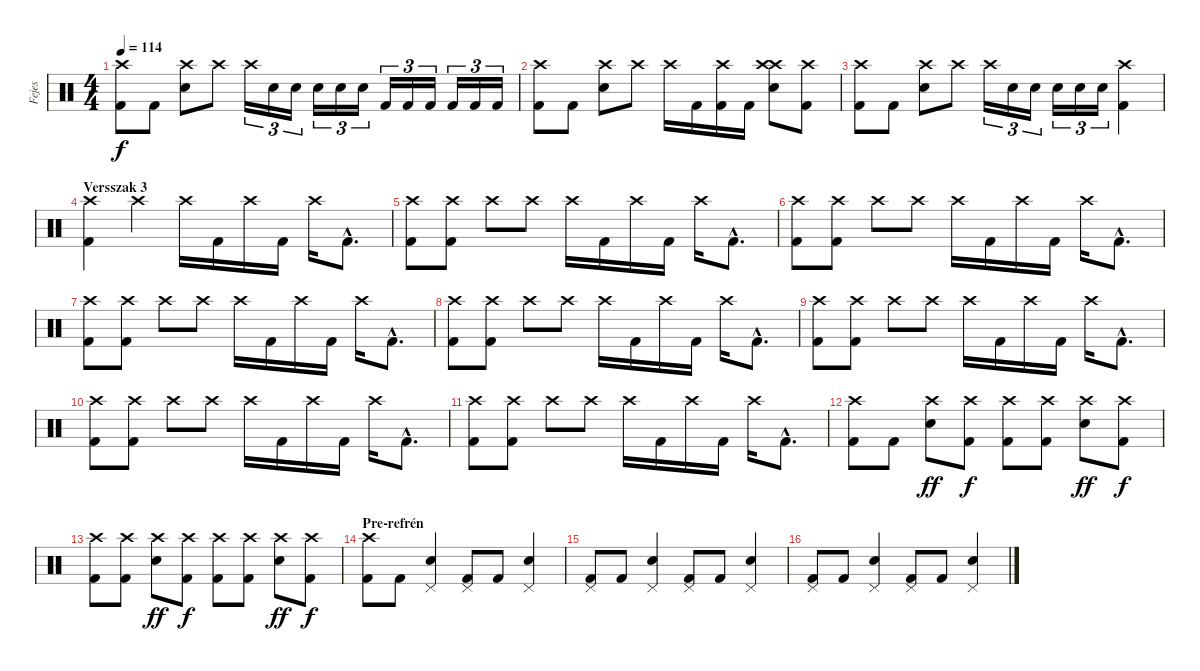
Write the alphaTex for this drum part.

\track ("Fejes" "Fejes") {instrument percussion}
\staff {score}
\articulation defaults
\ts (4 4)
\tempo 114
\clef neutral
\ks c
("Crash high (hit)" "Kick (hit) 2").8{dy f} "Kick (hit) 2".8 ("Crash high (hit)" "Electric Snare (hit)").8 "Crash high (hit)".8 "Crash high (hit)".16{tu (3 2)} "Electric Snare (hit)".16{tu (3 2)} "Electric Snare (hit)".16{tu (3 2)} "Electric Snare (hit)".16{tu (3 2)} "Electric Snare (hit)".16{tu (3 2)} "Electric Snare (hit)".16{tu (3 2)} "Kick (hit) 2".16{tu (3 2)} "Kick (hit) 2".16{tu (3 2)} "Kick (hit) 2".16{tu (3 2)} "Kick (hit) 2".16{tu (3 2)} "Kick (hit) 2".16{tu (3 2)} "Kick (hit) 2".16{tu (3 2)} |
("Crash high (hit)" "Kick (hit) 2").8 "Kick (hit) 2".8 ("Crash high (hit)" "Electric Snare (hit)").8 "Crash high (hit)".8 "Crash high (hit)".16 "Kick (hit) 2".16 ("Crash high (hit)" "Kick (hit) 2").16 "Kick (hit) 2".16 ("Crash high (hit)" "Electric Snare (hit)" "Crash high (hit)").8 ("Crash high (hit)" "Kick (hit) 2").8 |
("Crash high (hit)" "Kick (hit) 2").8 "Kick (hit) 2".8 ("Crash high (hit)" "Electric Snare (hit)").8 "Crash high (hit)".8 "Crash high (hit)".16{tu (3 2)} "Electric Snare (hit)".16{tu (3 2)} "Electric Snare (hit)".16{tu (3 2)} "Electric Snare (hit)".16{tu (3 2)} "Electric Snare (hit)".16{tu (3 2)} "Electric Snare (hit)".16{tu (3 2)} ("Crash high (hit)" "Kick (hit) 2").4 |
\section ("" "Versszak 3")
("Crash high (hit)" "Kick (hit) 2").4 "Crash high (hit)".4 "Crash high (hit)".16 "Kick (hit) 2".16 "Crash high (hit)".16 "Kick (hit) 2".16 "Crash high (hit)".16 "Kick (hit) 2"{hac}.8{d} |
("Crash high (hit)" "Kick (hit) 2").8 ("Crash high (hit)" "Kick (hit) 2").8 "Crash high (hit)".8 "Crash high (hit)".8 "Crash high (hit)".16 "Kick (hit) 2".16 "Crash high (hit)".16 "Kick (hit) 2".16 "Crash high (hit)".16 "Kick (hit) 2"{hac}.8{d} |
("Crash high (hit)" "Kick (hit) 2").8 ("Crash high (hit)" "Kick (hit) 2").8 "Crash high (hit)".8 "Crash high (hit)".8 "Crash high (hit)".16 "Kick (hit) 2".16 "Crash high (hit)".16 "Kick (hit) 2".16 "Crash high (hit)".16 "Kick (hit) 2"{hac}.8{d} |
("Crash high (hit)" "Kick (hit) 2").8 ("Crash high (hit)" "Kick (hit) 2").8 "Crash high (hit)".8 "Crash high (hit)".8 "Crash high (hit)".16 "Kick (hit) 2".16 "Crash high (hit)".16 "Kick (hit) 2".16 "Crash high (hit)".16 "Kick (hit) 2"{hac}.8{d} |
("Crash high (hit)" "Kick (hit) 2").8 ("Crash high (hit)" "Kick (hit) 2").8 "Crash high (hit)".8 "Crash high (hit)".8 "Crash high (hit)".16 "Kick (hit) 2".16 "Crash high (hit)".16 "Kick (hit) 2".16 "Crash high (hit)".16 "Kick (hit) 2"{hac}.8{d} |
("Crash high (hit)" "Kick (hit) 2").8 ("Crash high (hit)" "Kick (hit) 2").8 "Crash high (hit)".8 "Crash high (hit)".8 "Crash high (hit)".16 "Kick (hit) 2".16 "Crash high (hit)".16 "Kick (hit) 2".16 "Crash high (hit)".16 "Kick (hit) 2"{hac}.8{d} |
("Crash high (hit)" "Kick (hit) 2").8 ("Crash high (hit)" "Kick (hit) 2").8 "Crash high (hit)".8 "Crash high (hit)".8 "Crash high (hit)".16 "Kick (hit) 2".16 "Crash high (hit)".16 "Kick (hit) 2".16 "Crash high (hit)".16 "Kick (hit) 2"{hac}.8{d} |
("Crash high (hit)" "Kick (hit) 2").8 ("Crash high (hit)" "Kick (hit) 2").8 "Crash high (hit)".8 "Crash high (hit)".8 "Crash high (hit)".16 "Kick (hit) 2".16 "Crash high (hit)".16 "Kick (hit) 2".16 "Crash high (hit)".16 "Kick (hit) 2"{hac}.8{d} |
("Crash high (hit)" "Kick (hit) 2").8 "Kick (hit) 2".8 ("Crash high (hit)" "Electric Snare (hit)").8{dy ff} ("Crash high (hit)" "Kick (hit) 2").8{dy f} ("Crash high (hit)" "Kick (hit) 2").8 ("Crash high (hit)" "Kick (hit) 2").8 ("Crash high (hit)" "Electric Snare (hit)").8{dy ff} ("Crash high (hit)" "Kick (hit) 2").8{dy f} |
("Crash high (hit)" "Kick (hit) 2").8 ("Crash high (hit)" "Kick (hit) 2").8 ("Crash high (hit)" "Electric Snare (hit)").8{dy ff} ("Crash high (hit)" "Kick (hit) 2").8{dy f} ("Crash high (hit)" "Kick (hit) 2").8 ("Crash high (hit)" "Kick (hit) 2").8 ("Crash high (hit)" "Electric Snare (hit)").8{dy ff} ("Crash high (hit)" "Kick (hit) 2").8{dy f} |
\section ("" "Pre-refrén")
("Crash high (hit)" "Kick (hit) 2").8 "Kick (hit) 2".8 ("Pedal Hi-Hat (hit)" "Electric Snare (hit)").4 ("Pedal Hi-Hat (hit)" "Kick (hit) 2").8 "Kick (hit) 2".8 ("Pedal Hi-Hat (hit)" "Electric Snare (hit)").4 |
("Pedal Hi-Hat (hit)" "Kick (hit) 2").8 "Kick (hit) 2".8 ("Pedal Hi-Hat (hit)" "Electric Snare (hit)").4 ("Pedal Hi-Hat (hit)" "Kick (hit) 2").8 "Kick (hit) 2".8 ("Pedal Hi-Hat (hit)" "Electric Snare (hit)").4 |
("Pedal Hi-Hat (hit)" "Kick (hit) 2").8 "Kick (hit) 2".8 ("Pedal Hi-Hat (hit)" "Electric Snare (hit)").4 ("Pedal Hi-Hat (hit)" "Kick (hit) 2").8 "Kick (hit) 2".8 ("Pedal Hi-Hat (hit)" "Electric Snare (hit)").4
